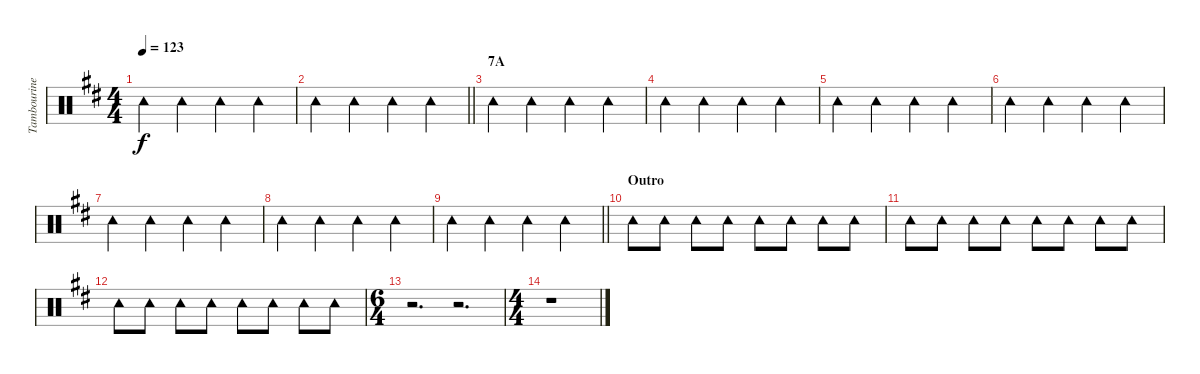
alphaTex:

\track ("Tambourine" "Tambourine") {instrument percussion}
\staff {score}
\articulation defaults
\ts (4 4)
\tempo 123
\clef neutral
\ks d "Tambourine (hit)".4{dy f} "Tambourine (hit)".4 "Tambourine (hit)".4 "Tambourine (hit)".4
|
\barLineRight lightlight "Tambourine (hit)".4 "Tambourine (hit)".4 "Tambourine (hit)".4 "Tambourine (hit)".4
|
\section ("" "7A")
"Tambourine (hit)".4 "Tambourine (hit)".4 "Tambourine (hit)".4 "Tambourine (hit)".4 |
"Tambourine (hit)".4 "Tambourine (hit)".4 "Tambourine (hit)".4 "Tambourine (hit)".4 |
"Tambourine (hit)".4 "Tambourine (hit)".4 "Tambourine (hit)".4 "Tambourine (hit)".4 |
"Tambourine (hit)".4 "Tambourine (hit)".4 "Tambourine (hit)".4 "Tambourine (hit)".4 |
"Tambourine (hit)".4 "Tambourine (hit)".4 "Tambourine (hit)".4 "Tambourine (hit)".4 |
"Tambourine (hit)".4 "Tambourine (hit)".4 "Tambourine (hit)".4 "Tambourine (hit)".4 |
\barLineRight lightlight "Tambourine (hit)".4 "Tambourine (hit)".4 "Tambourine (hit)".4 "Tambourine (hit)".4
|
\section ("" "Outro")
"Tambourine (hit)".8 "Tambourine (hit)".8 "Tambourine (hit)".8 "Tambourine (hit)".8 "Tambourine (hit)".8 "Tambourine (hit)".8 "Tambourine (hit)".8 "Tambourine (hit)".8 |
"Tambourine (hit)".8 "Tambourine (hit)".8 "Tambourine (hit)".8 "Tambourine (hit)".8 "Tambourine (hit)".8 "Tambourine (hit)".8 "Tambourine (hit)".8 "Tambourine (hit)".8 |
"Tambourine (hit)".8 "Tambourine (hit)".8 "Tambourine (hit)".8 "Tambourine (hit)".8 "Tambourine (hit)".8 "Tambourine (hit)".8 "Tambourine (hit)".8 "Tambourine (hit)".8 |
\ts (6 4)
r.2{d} r.2{d} |
\ts (4 4)
r.1
